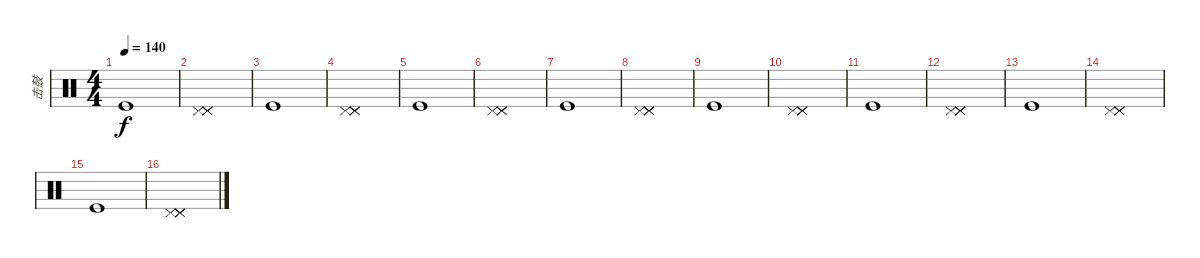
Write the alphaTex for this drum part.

\track ("击鼓" "击鼓") {instrument percussion}
\staff {score}
\articulation defaults
\ts (4 4)
\tempo 140
\clef neutral
\ks c "Kick (hit)".1{dy f}
|
("Pedal Hi-Hat (hit)" "Pedal Hi-Hat (hit)" "Pedal Hi-Hat (hit)" "Pedal Hi-Hat (hit)").1 |
"Kick (hit)".1 |
("Pedal Hi-Hat (hit)" "Pedal Hi-Hat (hit)" "Pedal Hi-Hat (hit)" "Pedal Hi-Hat (hit)").1 |
"Kick (hit)".1 |
("Pedal Hi-Hat (hit)" "Pedal Hi-Hat (hit)" "Pedal Hi-Hat (hit)" "Pedal Hi-Hat (hit)").1 |
"Kick (hit)".1 |
("Pedal Hi-Hat (hit)" "Pedal Hi-Hat (hit)" "Pedal Hi-Hat (hit)" "Pedal Hi-Hat (hit)").1 |
"Kick (hit)".1 |
("Pedal Hi-Hat (hit)" "Pedal Hi-Hat (hit)" "Pedal Hi-Hat (hit)" "Pedal Hi-Hat (hit)").1 |
"Kick (hit)".1 |
("Pedal Hi-Hat (hit)" "Pedal Hi-Hat (hit)" "Pedal Hi-Hat (hit)" "Pedal Hi-Hat (hit)").1 |
"Kick (hit)".1 |
("Pedal Hi-Hat (hit)" "Pedal Hi-Hat (hit)" "Pedal Hi-Hat (hit)" "Pedal Hi-Hat (hit)").1 |
"Kick (hit)".1 |
("Pedal Hi-Hat (hit)" "Pedal Hi-Hat (hit)" "Pedal Hi-Hat (hit)" "Pedal Hi-Hat (hit)").1
